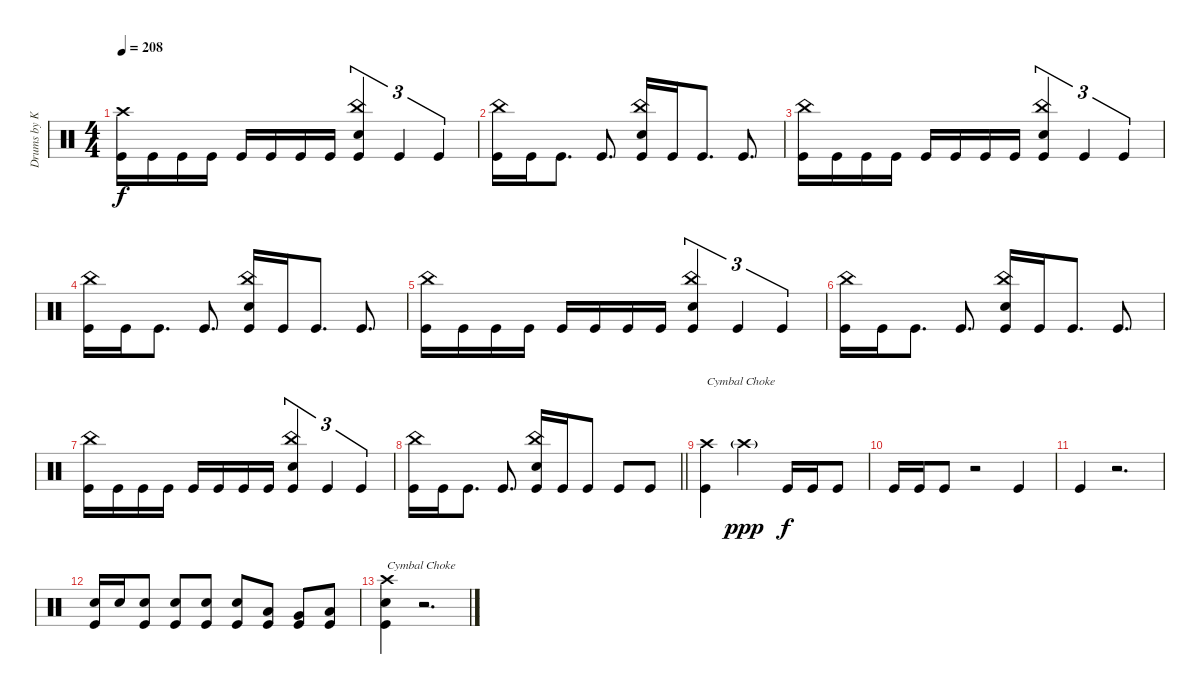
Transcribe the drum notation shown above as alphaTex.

\track ("Drums by Kwonnie" "Drums by K") {instrument percussion}
\staff {score}
\articulation defaults
\ts (4 4)
\tempo 208
\clef neutral
\ks c
("Crash high (hit)" "Kick (hit)").16{dy f} "Kick (hit)".16 "Kick (hit)".16 "Kick (hit)".16 "Kick (hit)".16 "Kick (hit)".16 "Kick (hit)".16 "Kick (hit)".16 ("China (hit)" "Electric Snare (hit)" "Kick (hit)").4{tu (3 2)} "Kick (hit)".4{tu (3 2)} "Kick (hit)".4{tu (3 2)} |
("China (hit)" "Kick (hit)").16 "Kick (hit)".16 "Kick (hit)".8{d} "Kick (hit)".8{d} ("China (hit)" "Electric Snare (hit)" "Kick (hit)").16 "Kick (hit)".16 "Kick (hit)".8{d} "Kick (hit)".8{d} |
("China (hit)" "Kick (hit)").16 "Kick (hit)".16 "Kick (hit)".16 "Kick (hit)".16 "Kick (hit)".16 "Kick (hit)".16 "Kick (hit)".16 "Kick (hit)".16 ("China (hit)" "Electric Snare (hit)" "Kick (hit)").4{tu (3 2)} "Kick (hit)".4{tu (3 2)} "Kick (hit)".4{tu (3 2)} |
("China (hit)" "Kick (hit)").16 "Kick (hit)".16 "Kick (hit)".8{d} "Kick (hit)".8{d} ("China (hit)" "Electric Snare (hit)" "Kick (hit)").16 "Kick (hit)".16 "Kick (hit)".8{d} "Kick (hit)".8{d} |
("China (hit)" "Kick (hit)").16 "Kick (hit)".16 "Kick (hit)".16 "Kick (hit)".16 "Kick (hit)".16 "Kick (hit)".16 "Kick (hit)".16 "Kick (hit)".16 ("China (hit)" "Electric Snare (hit)" "Kick (hit)").4{tu (3 2)} "Kick (hit)".4{tu (3 2)} "Kick (hit)".4{tu (3 2)} |
("China (hit)" "Kick (hit)").16 "Kick (hit)".16 "Kick (hit)".8{d} "Kick (hit)".8{d} ("China (hit)" "Electric Snare (hit)" "Kick (hit)").16 "Kick (hit)".16 "Kick (hit)".8{d} "Kick (hit)".8{d} |
("China (hit)" "Kick (hit)").16 "Kick (hit)".16 "Kick (hit)".16 "Kick (hit)".16 "Kick (hit)".16 "Kick (hit)".16 "Kick (hit)".16 "Kick (hit)".16 ("China (hit)" "Electric Snare (hit)" "Kick (hit)").4{tu (3 2)} "Kick (hit)".4{tu (3 2)} "Kick (hit)".4{tu (3 2)} |
\barLineRight lightlight
("China (hit)" "Kick (hit)").16 "Kick (hit)".16 "Kick (hit)".8{d} "Kick (hit)".8{d} ("China (hit)" "Electric Snare (hit)" "Kick (hit)").16 "Kick (hit)".16 "Kick (hit)".8 "Kick (hit)".8 "Kick (hit)".8 |
("Crash high (hit)" "Kick (hit)").4{txt "Cymbal Choke"} "Crash high (hit)"{g}.2{dy ppp volume 0} "Kick (hit)".16{dy f volume 10} "Kick (hit)".16 "Kick (hit)".8 |
"Kick (hit)".16 "Kick (hit)".16 "Kick (hit)".8 r.2 "Kick (hit)".4 |
"Kick (hit)".4 r.2{d} |
("Electric Snare (hit)" "Kick (hit)").16 "Electric Snare (hit)".16 ("Electric Snare (hit)" "Kick (hit)").8 ("Electric Snare (hit)" "Kick (hit)").8 ("Electric Snare (hit)" "Kick (hit)").8 ("Electric Snare (hit)" "Kick (hit)").8 ("Low Tom (hit)" "Kick (hit)").8 ("Very Low Tom (hit)" "Kick (hit)").8 ("Low Floor Tom (hit)" "Kick (hit)").8 |
("Crash high (hit)" "Electric Snare (hit)" "Kick (hit)").4{txt "Cymbal Choke"} r.2{d volume 0}
